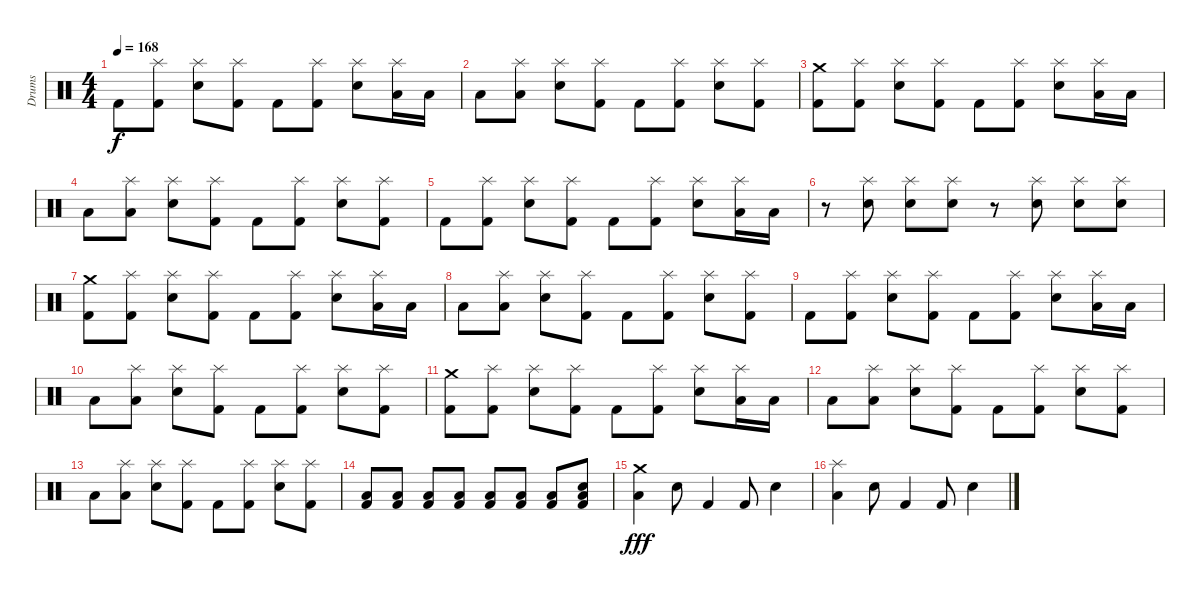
\track ("Drums" "Drums") {instrument percussion}
\staff {score}
\articulation defaults
\ts (4 4)
\tempo 168
\clef neutral
\ks c "Kick (hit) 2".8{dy f}
("Splash (hit)" "Kick (hit) 2").8 ("Splash (hit)" "Electric Snare (hit)").8 ("Splash (hit)" "Kick (hit) 2").8 "Kick (hit) 2".8 ("Splash (hit)" "Kick (hit) 2").8 ("Splash (hit)" "Electric Snare (hit)").8 ("Splash (hit)" "Low Floor Tom (hit)").16 "Low Floor Tom (hit)".16 |
"Low Floor Tom (hit)".8 ("Splash (hit)" "Low Floor Tom (hit)").8 ("Splash (hit)" "Electric Snare (hit)").8 ("Splash (hit)" "Kick (hit) 2").8 "Kick (hit) 2".8 ("Splash (hit)" "Kick (hit) 2").8 ("Splash (hit)" "Electric Snare (hit)").8 ("Splash (hit)" "Kick (hit) 2").8 |
("Crash medium (hit)" "Kick (hit) 2").8 ("Splash (hit)" "Kick (hit) 2").8 ("Splash (hit)" "Electric Snare (hit)").8 ("Splash (hit)" "Kick (hit) 2").8 "Kick (hit) 2".8 ("Splash (hit)" "Kick (hit) 2").8 ("Splash (hit)" "Electric Snare (hit)").8 ("Splash (hit)" "Low Floor Tom (hit)").16 "Low Floor Tom (hit)".16 |
"Low Floor Tom (hit)".8 ("Splash (hit)" "Low Floor Tom (hit)").8 ("Splash (hit)" "Electric Snare (hit)").8 ("Splash (hit)" "Kick (hit) 2").8 "Kick (hit) 2".8 ("Splash (hit)" "Kick (hit) 2").8 ("Splash (hit)" "Electric Snare (hit)").8 ("Splash (hit)" "Kick (hit) 2").8 |
"Kick (hit) 2".8 ("Splash (hit)" "Kick (hit) 2").8 ("Splash (hit)" "Electric Snare (hit)").8 ("Splash (hit)" "Kick (hit) 2").8 "Kick (hit) 2".8 ("Splash (hit)" "Kick (hit) 2").8 ("Splash (hit)" "Electric Snare (hit)").8 ("Splash (hit)" "Low Floor Tom (hit)").16 "Low Floor Tom (hit)".16 |
r.8 ("Splash (hit)" "Electric Snare (hit)").8 ("Splash (hit)" "Electric Snare (hit)").8 ("Splash (hit)" "Electric Snare (hit)").8 r.8 ("Splash (hit)" "Electric Snare (hit)").8 ("Splash (hit)" "Electric Snare (hit)").8 ("Splash (hit)" "Electric Snare (hit)").8 |
("Crash medium (hit)" "Kick (hit) 2").8 ("Splash (hit)" "Kick (hit) 2").8 ("Splash (hit)" "Electric Snare (hit)").8 ("Splash (hit)" "Kick (hit) 2").8 "Kick (hit) 2".8 ("Splash (hit)" "Kick (hit) 2").8 ("Splash (hit)" "Electric Snare (hit)").8 ("Splash (hit)" "Low Floor Tom (hit)").16 "Low Floor Tom (hit)".16 |
"Low Floor Tom (hit)".8 ("Splash (hit)" "Low Floor Tom (hit)").8 ("Splash (hit)" "Electric Snare (hit)").8 ("Splash (hit)" "Kick (hit) 2").8 "Kick (hit) 2".8 ("Splash (hit)" "Kick (hit) 2").8 ("Splash (hit)" "Electric Snare (hit)").8 ("Splash (hit)" "Kick (hit) 2").8 |
"Kick (hit) 2".8 ("Splash (hit)" "Kick (hit) 2").8 ("Splash (hit)" "Electric Snare (hit)").8 ("Splash (hit)" "Kick (hit) 2").8 "Kick (hit) 2".8 ("Splash (hit)" "Kick (hit) 2").8 ("Splash (hit)" "Electric Snare (hit)").8 ("Splash (hit)" "Low Floor Tom (hit)").16 "Low Floor Tom (hit)".16 |
"Low Floor Tom (hit)".8 ("Splash (hit)" "Low Floor Tom (hit)").8 ("Splash (hit)" "Electric Snare (hit)").8 ("Splash (hit)" "Kick (hit) 2").8 "Kick (hit) 2".8 ("Splash (hit)" "Kick (hit) 2").8 ("Splash (hit)" "Electric Snare (hit)").8 ("Splash (hit)" "Kick (hit) 2").8 |
("Crash medium (hit)" "Kick (hit) 2").8 ("Splash (hit)" "Kick (hit) 2").8 ("Splash (hit)" "Electric Snare (hit)").8 ("Splash (hit)" "Kick (hit) 2").8 "Kick (hit) 2".8 ("Splash (hit)" "Kick (hit) 2").8 ("Splash (hit)" "Electric Snare (hit)").8 ("Splash (hit)" "Low Floor Tom (hit)").16 "Low Floor Tom (hit)".16 |
"Low Floor Tom (hit)".8 ("Splash (hit)" "Low Floor Tom (hit)").8 ("Splash (hit)" "Electric Snare (hit)").8 ("Splash (hit)" "Kick (hit) 2").8 "Kick (hit) 2".8 ("Splash (hit)" "Kick (hit) 2").8 ("Splash (hit)" "Electric Snare (hit)").8 ("Splash (hit)" "Kick (hit) 2").8 |
"Low Floor Tom (hit)".8 ("Splash (hit)" "Low Floor Tom (hit)").8 ("Splash (hit)" "Electric Snare (hit)").8 ("Splash (hit)" "Kick (hit) 2").8 "Kick (hit) 2".8 ("Splash (hit)" "Kick (hit) 2").8 ("Splash (hit)" "Electric Snare (hit)").8 ("Splash (hit)" "Kick (hit) 2").8 |
("Low Floor Tom (hit)" "Kick (hit) 2").8 ("Low Floor Tom (hit)" "Kick (hit) 2").8 ("Low Floor Tom (hit)" "Kick (hit) 2").8 ("Low Floor Tom (hit)" "Kick (hit) 2").8 ("Low Floor Tom (hit)" "Kick (hit) 2").8 ("Low Floor Tom (hit)" "Kick (hit) 2").8 ("Low Floor Tom (hit)" "Kick (hit) 2").8 ("Electric Snare (hit)" "Low Floor Tom (hit)" "Kick (hit) 2").8 |
("Low Floor Tom (hit)" "Crash medium (hit)").4{dy fff} "Electric Snare (hit)".8 "Kick (hit) 2".4 "Kick (hit) 2".8 "Electric Snare (hit)".4 |
("Low Floor Tom (hit)" "Splash (hit)").4 "Electric Snare (hit)".8 "Kick (hit) 2".4 "Kick (hit) 2".8 "Electric Snare (hit)".4
